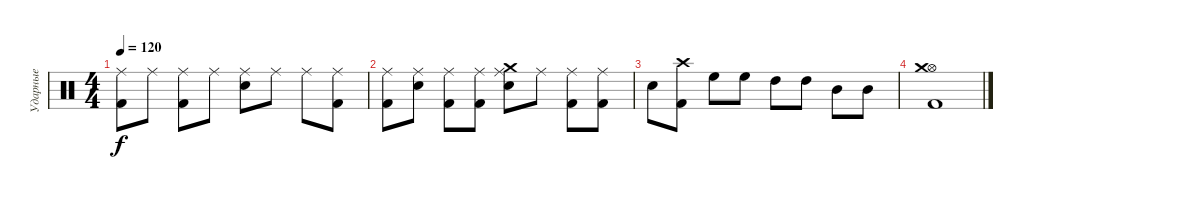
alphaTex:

\track ("Ударные" "Ударные") {instrument percussion}
\staff {score}
\articulation defaults
\ts (4 4)
\tempo 120
\clef neutral
\ks c
("Ride (middle)" "Kick (hit) 2").8{dy f} "Ride (middle)".8 ("Ride (middle)" "Kick (hit) 2").8 "Ride (middle)".8 ("Ride (middle)" "Snare (hit) 2").8 "Ride (middle)".8 "Ride (middle)".8 ("Ride (middle)" "Kick (hit) 2").8 |
("Ride (middle)" "Kick (hit) 2").8 ("Ride (middle)" "Snare (hit) 2").8 ("Ride (middle)" "Kick (hit) 2").8 ("Ride (middle)" "Kick (hit) 2").8 ("Crash medium (hit)" "Ride (middle)" "Snare (hit) 2").8 "Ride (middle)".8 ("Ride (middle)" "Kick (hit) 2").8 ("Ride (middle)" "Kick (hit) 2").8 |
"Snare (hit) 2".8 ("Crash high (hit)" "Kick (hit) 2").8 "High Floor Tom (hit)".8 "High Floor Tom (hit)".8 "High Tom (hit)".8 "High Tom (hit)".8 "Mid Tom (hit)".8 "Mid Tom (hit)".8 |
("Hi-Hat (open)" "Crash medium (hit)" "Kick (hit) 2").1
